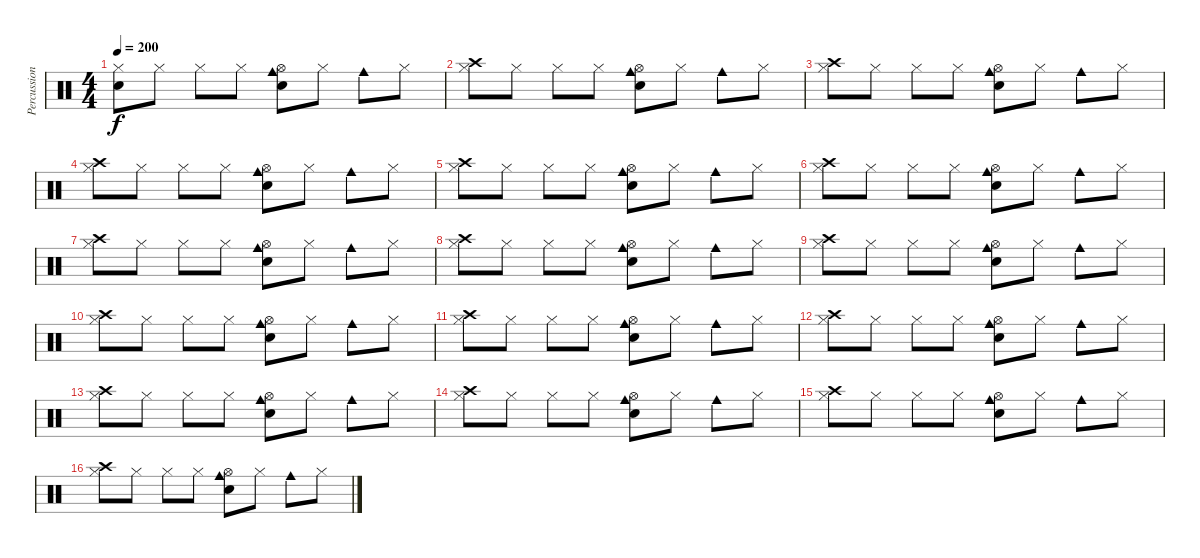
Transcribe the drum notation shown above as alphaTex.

\track ("Percussion" "Percussion") {instrument percussion}
\staff {score}
\articulation defaults
\ts (4 4)
\tempo 200
\clef neutral
\ks c
("Hi-Hat (closed)" "Electric Snare (hit)").8{dy f} "Hi-Hat (closed)".8 "Hi-Hat (closed)".8 "Hi-Hat (closed)".8 ("Cowbell medium (hit)" "Snare (hit) 2" "Hi-Hat (open)").8 "Hi-Hat (closed)".8 "Cowbell medium (hit)".8 "Hi-Hat (closed)".8 |
("Hi-Hat (closed)" "Crash high (hit)").8 "Hi-Hat (closed)".8 "Hi-Hat (closed)".8 "Hi-Hat (closed)".8 ("Cowbell medium (hit)" "Snare (hit) 2" "Hi-Hat (open)").8 "Hi-Hat (closed)".8 "Cowbell medium (hit)".8 "Hi-Hat (closed)".8 |
("Hi-Hat (closed)" "Crash high (hit)").8 "Hi-Hat (closed)".8 "Hi-Hat (closed)".8 "Hi-Hat (closed)".8 ("Cowbell medium (hit)" "Snare (hit) 2" "Hi-Hat (open)").8 "Hi-Hat (closed)".8 "Cowbell medium (hit)".8 "Hi-Hat (closed)".8 |
("Hi-Hat (closed)" "Crash high (hit)").8 "Hi-Hat (closed)".8 "Hi-Hat (closed)".8 "Hi-Hat (closed)".8 ("Cowbell medium (hit)" "Snare (hit) 2" "Hi-Hat (open)").8 "Hi-Hat (closed)".8 "Cowbell medium (hit)".8 "Hi-Hat (closed)".8 |
("Hi-Hat (closed)" "Crash high (hit)").8 "Hi-Hat (closed)".8 "Hi-Hat (closed)".8 "Hi-Hat (closed)".8 ("Cowbell medium (hit)" "Snare (hit) 2" "Hi-Hat (open)").8 "Hi-Hat (closed)".8 "Cowbell medium (hit)".8 "Hi-Hat (closed)".8 |
("Hi-Hat (closed)" "Crash high (hit)").8 "Hi-Hat (closed)".8 "Hi-Hat (closed)".8 "Hi-Hat (closed)".8 ("Cowbell medium (hit)" "Snare (hit) 2" "Hi-Hat (open)").8 "Hi-Hat (closed)".8 "Cowbell medium (hit)".8 "Hi-Hat (closed)".8 |
("Hi-Hat (closed)" "Crash high (hit)").8 "Hi-Hat (closed)".8 "Hi-Hat (closed)".8 "Hi-Hat (closed)".8 ("Cowbell medium (hit)" "Snare (hit) 2" "Hi-Hat (open)").8 "Hi-Hat (closed)".8 "Cowbell medium (hit)".8 "Hi-Hat (closed)".8 |
("Hi-Hat (closed)" "Crash high (hit)").8 "Hi-Hat (closed)".8 "Hi-Hat (closed)".8 "Hi-Hat (closed)".8 ("Cowbell medium (hit)" "Snare (hit) 2" "Hi-Hat (open)").8 "Hi-Hat (closed)".8 "Cowbell medium (hit)".8 "Hi-Hat (closed)".8 |
("Hi-Hat (closed)" "Crash high (hit)").8 "Hi-Hat (closed)".8 "Hi-Hat (closed)".8 "Hi-Hat (closed)".8 ("Cowbell medium (hit)" "Snare (hit) 2" "Hi-Hat (open)").8 "Hi-Hat (closed)".8 "Cowbell medium (hit)".8 "Hi-Hat (closed)".8 |
("Hi-Hat (closed)" "Crash high (hit)").8 "Hi-Hat (closed)".8 "Hi-Hat (closed)".8 "Hi-Hat (closed)".8 ("Cowbell medium (hit)" "Snare (hit) 2" "Hi-Hat (open)").8 "Hi-Hat (closed)".8 "Cowbell medium (hit)".8 "Hi-Hat (closed)".8 |
("Hi-Hat (closed)" "Crash high (hit)").8 "Hi-Hat (closed)".8 "Hi-Hat (closed)".8 "Hi-Hat (closed)".8 ("Cowbell medium (hit)" "Snare (hit) 2" "Hi-Hat (open)").8 "Hi-Hat (closed)".8 "Cowbell medium (hit)".8 "Hi-Hat (closed)".8 |
("Hi-Hat (closed)" "Crash high (hit)").8 "Hi-Hat (closed)".8 "Hi-Hat (closed)".8 "Hi-Hat (closed)".8 ("Cowbell medium (hit)" "Snare (hit) 2" "Hi-Hat (open)").8 "Hi-Hat (closed)".8 "Cowbell medium (hit)".8 "Hi-Hat (closed)".8 |
("Hi-Hat (closed)" "Crash high (hit)").8 "Hi-Hat (closed)".8 "Hi-Hat (closed)".8 "Hi-Hat (closed)".8 ("Cowbell medium (hit)" "Snare (hit) 2" "Hi-Hat (open)").8 "Hi-Hat (closed)".8 "Cowbell medium (hit)".8 "Hi-Hat (closed)".8 |
("Hi-Hat (closed)" "Crash high (hit)").8 "Hi-Hat (closed)".8 "Hi-Hat (closed)".8 "Hi-Hat (closed)".8 ("Cowbell medium (hit)" "Snare (hit) 2" "Hi-Hat (open)").8 "Hi-Hat (closed)".8 "Cowbell medium (hit)".8 "Hi-Hat (closed)".8 |
("Hi-Hat (closed)" "Crash high (hit)").8 "Hi-Hat (closed)".8 "Hi-Hat (closed)".8 "Hi-Hat (closed)".8 ("Cowbell medium (hit)" "Snare (hit) 2" "Hi-Hat (open)").8 "Hi-Hat (closed)".8 "Cowbell medium (hit)".8 "Hi-Hat (closed)".8 |
("Hi-Hat (closed)" "Crash high (hit)").8 "Hi-Hat (closed)".8 "Hi-Hat (closed)".8 "Hi-Hat (closed)".8 ("Cowbell medium (hit)" "Snare (hit) 2" "Hi-Hat (open)").8 "Hi-Hat (closed)".8 "Cowbell medium (hit)".8 "Hi-Hat (closed)".8
